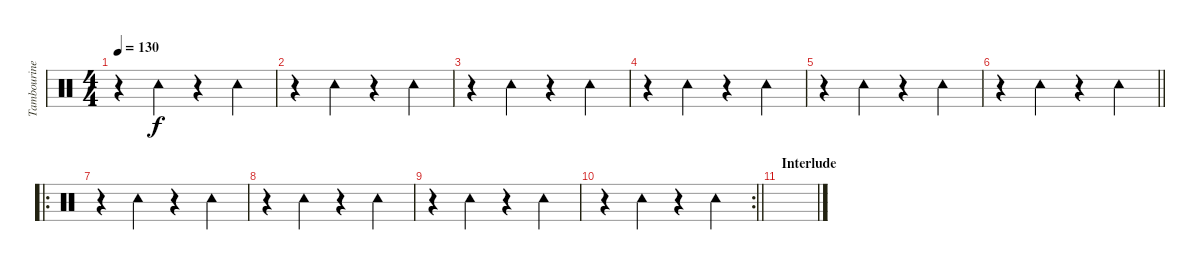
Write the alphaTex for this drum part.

\track ("Tambourine" "Tambourine") {instrument percussion}
\staff {score}
\articulation defaults
\ts (4 4)
\tempo 130
\clef neutral
\ks c
r.4{dy f} "Tambourine (hit)".4 r.4 "Tambourine (hit)".4 |
r.4 "Tambourine (hit)".4 r.4 "Tambourine (hit)".4 |
r.4 "Tambourine (hit)".4 r.4 "Tambourine (hit)".4 |
r.4 "Tambourine (hit)".4 r.4 "Tambourine (hit)".4 |
r.4 "Tambourine (hit)".4 r.4 "Tambourine (hit)".4 |
\barLineRight lightlight
r.4 "Tambourine (hit)".4 r.4 "Tambourine (hit)".4 |
\ro
r.4 "Tambourine (hit)".4 r.4 "Tambourine (hit)".4 |
r.4 "Tambourine (hit)".4 r.4 "Tambourine (hit)".4 |
r.4 "Tambourine (hit)".4 r.4 "Tambourine (hit)".4 |
\rc 2
\barLineRight lightlight
r.4 "Tambourine (hit)".4 r.4 "Tambourine (hit)".4 |
\section ("" "Interlude")
